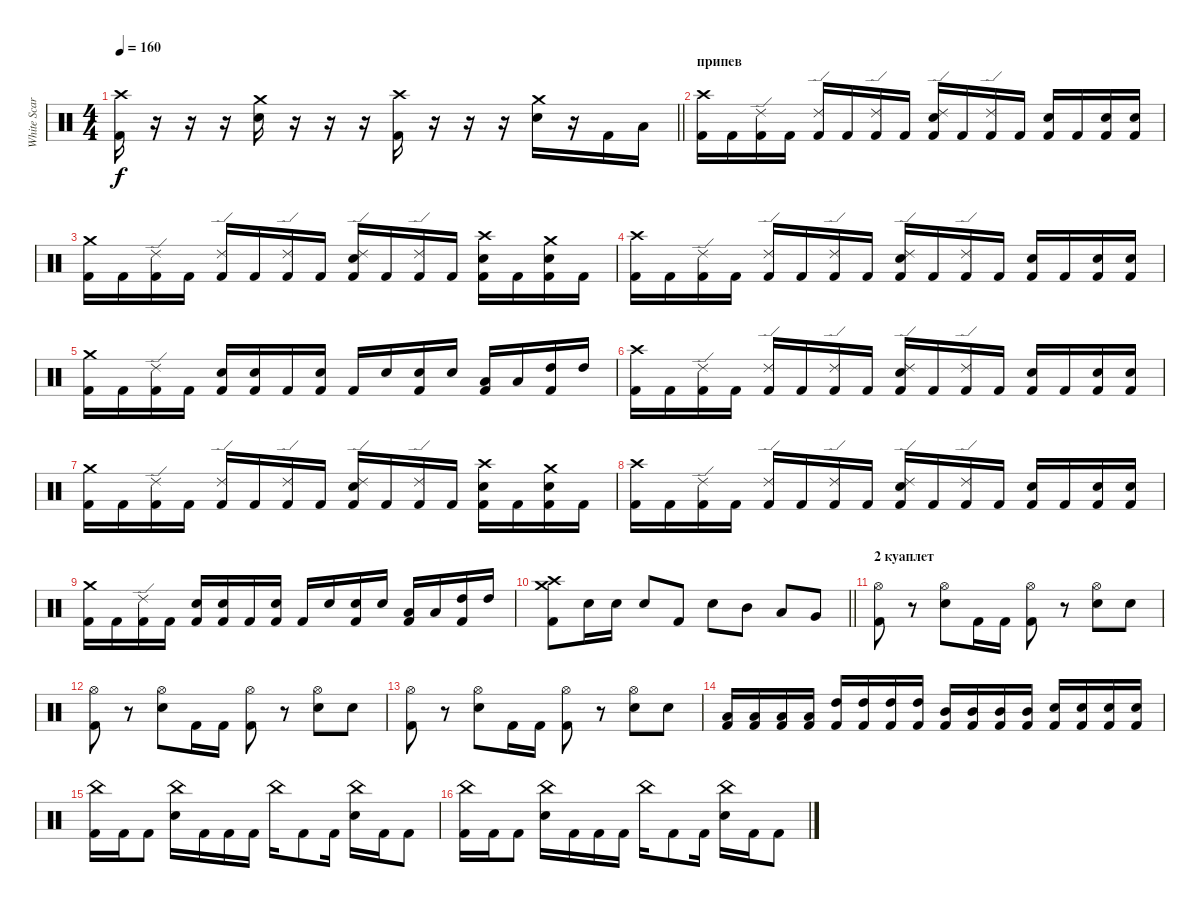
\track ("White Scar" "White Scar") {instrument percussion}
\staff {score}
\articulation defaults
\ts (4 4)
\tempo 160
\clef neutral
\barLineRight lightlight
\ks c
("Crash high (hit)" "Kick (hit) 2").16{dy f} r.16 r.16 r.16 ("Crash medium (hit)" "Snare (hit) 2").16 r.16 r.16 r.16 ("Crash high (hit)" "Kick (hit) 2").16 r.16 r.16 r.16 ("Crash medium (hit)" "Snare (hit) 2").16 r.16 "Kick (hit) 2".16 "Low Tom (hit)".16 |
\section ("" "припев")
("Crash high (hit)" "Kick (hit) 2").16 "Kick (hit) 2".16 ("Ride (edge) 2" "Kick (hit) 2").16 "Kick (hit) 2".16 ("Ride (edge) 2" "Kick (hit) 2").16 "Kick (hit) 2".16 ("Ride (edge) 2" "Kick (hit) 2").16 "Kick (hit) 2".16 ("Snare (hit) 2" "Ride (edge) 2" "Kick (hit) 2").16 "Kick (hit) 2".16 ("Ride (edge) 2" "Kick (hit) 2").16 "Kick (hit) 2".16 ("Snare (hit) 2" "Kick (hit) 2").16 "Kick (hit) 2".16 ("Snare (hit) 2" "Kick (hit) 2").16 ("Snare (hit) 2" "Kick (hit) 2").16 |
("Crash medium (hit)" "Kick (hit) 2").16 "Kick (hit) 2".16 ("Ride (edge) 2" "Kick (hit) 2").16 "Kick (hit) 2".16 ("Ride (edge) 2" "Kick (hit) 2").16 "Kick (hit) 2".16 ("Ride (edge) 2" "Kick (hit) 2").16 "Kick (hit) 2".16 ("Snare (hit) 2" "Ride (edge) 2" "Kick (hit) 2").16 "Kick (hit) 2".16 ("Ride (edge) 2" "Kick (hit) 2").16 "Kick (hit) 2".16 ("Snare (hit) 2" "Crash high (hit)" "Kick (hit) 2").16 "Kick (hit) 2".16 ("Snare (hit) 2" "Crash medium (hit)" "Kick (hit) 2").16 "Kick (hit) 2".16 |
("Crash high (hit)" "Kick (hit) 2").16 "Kick (hit) 2".16 ("Ride (edge) 2" "Kick (hit) 2").16 "Kick (hit) 2".16 ("Ride (edge) 2" "Kick (hit) 2").16 "Kick (hit) 2".16 ("Ride (edge) 2" "Kick (hit) 2").16 "Kick (hit) 2".16 ("Snare (hit) 2" "Ride (edge) 2" "Kick (hit) 2").16 "Kick (hit) 2".16 ("Ride (edge) 2" "Kick (hit) 2").16 "Kick (hit) 2".16 ("Snare (hit) 2" "Kick (hit) 2").16 "Kick (hit) 2".16 ("Snare (hit) 2" "Kick (hit) 2").16 ("Snare (hit) 2" "Kick (hit) 2").16 |
("Crash medium (hit)" "Kick (hit) 2").16 "Kick (hit) 2".16 ("Ride (edge) 2" "Kick (hit) 2").16 "Kick (hit) 2".16 ("Snare (hit) 2" "Kick (hit) 2").16 ("Snare (hit) 2" "Kick (hit) 2").16 "Kick (hit) 2".16 ("Snare (hit) 2" "Kick (hit) 2").16 "Kick (hit) 2".16 "Snare (hit) 2".16 ("Snare (hit) 2" "Kick (hit) 2").16 "Snare (hit) 2".16 ("Low Tom (hit)" "Kick (hit) 2").16 "Low Tom (hit)".16 ("High Tom (hit)" "Kick (hit) 2").16 "High Tom (hit)".16 |
("Crash high (hit)" "Kick (hit) 2").16 "Kick (hit) 2".16 ("Ride (edge) 2" "Kick (hit) 2").16 "Kick (hit) 2".16 ("Ride (edge) 2" "Kick (hit) 2").16 "Kick (hit) 2".16 ("Ride (edge) 2" "Kick (hit) 2").16 "Kick (hit) 2".16 ("Snare (hit) 2" "Ride (edge) 2" "Kick (hit) 2").16 "Kick (hit) 2".16 ("Ride (edge) 2" "Kick (hit) 2").16 "Kick (hit) 2".16 ("Snare (hit) 2" "Kick (hit) 2").16 "Kick (hit) 2".16 ("Snare (hit) 2" "Kick (hit) 2").16 ("Snare (hit) 2" "Kick (hit) 2").16 |
("Crash medium (hit)" "Kick (hit) 2").16 "Kick (hit) 2".16 ("Ride (edge) 2" "Kick (hit) 2").16 "Kick (hit) 2".16 ("Ride (edge) 2" "Kick (hit) 2").16 "Kick (hit) 2".16 ("Ride (edge) 2" "Kick (hit) 2").16 "Kick (hit) 2".16 ("Snare (hit) 2" "Ride (edge) 2" "Kick (hit) 2").16 "Kick (hit) 2".16 ("Ride (edge) 2" "Kick (hit) 2").16 "Kick (hit) 2".16 ("Snare (hit) 2" "Crash high (hit)" "Kick (hit) 2").16 "Kick (hit) 2".16 ("Snare (hit) 2" "Crash medium (hit)" "Kick (hit) 2").16 "Kick (hit) 2".16 |
("Crash high (hit)" "Kick (hit) 2").16 "Kick (hit) 2".16 ("Ride (edge) 2" "Kick (hit) 2").16 "Kick (hit) 2".16 ("Ride (edge) 2" "Kick (hit) 2").16 "Kick (hit) 2".16 ("Ride (edge) 2" "Kick (hit) 2").16 "Kick (hit) 2".16 ("Snare (hit) 2" "Ride (edge) 2" "Kick (hit) 2").16 "Kick (hit) 2".16 ("Ride (edge) 2" "Kick (hit) 2").16 "Kick (hit) 2".16 ("Snare (hit) 2" "Kick (hit) 2").16 "Kick (hit) 2".16 ("Snare (hit) 2" "Kick (hit) 2").16 ("Snare (hit) 2" "Kick (hit) 2").16 |
("Crash medium (hit)" "Kick (hit) 2").16 "Kick (hit) 2".16 ("Ride (edge) 2" "Kick (hit) 2").16 "Kick (hit) 2".16 ("Snare (hit) 2" "Kick (hit) 2").16 ("Snare (hit) 2" "Kick (hit) 2").16 "Kick (hit) 2".16 ("Snare (hit) 2" "Kick (hit) 2").16 "Kick (hit) 2".16 "Snare (hit) 2".16 ("Snare (hit) 2" "Kick (hit) 2").16 "Snare (hit) 2".16 ("Low Tom (hit)" "Kick (hit) 2").16 "Low Tom (hit)".16 ("High Tom (hit)" "Kick (hit) 2").16 "High Tom (hit)".16 |
\barLineRight lightlight
("Crash medium (hit)" "Crash high (hit)" "Kick (hit) 2").8 "Snare (hit) 2".16 "Snare (hit) 2".16 "Snare (hit) 2".8 "Kick (hit) 2".8 "Snare (hit) 2".8 "Mid Tom (hit)".8 "Low Tom (hit)".8 "Very Low Tom (hit)".8 |
\section ("" "2 куаплет")
("Hi-Hat (open)" "Kick (hit) 2").8 r.8 ("Hi-Hat (open)" "Snare (hit) 2").8 "Kick (hit) 2".16 "Kick (hit) 2".16 ("Hi-Hat (open)" "Kick (hit) 2").8 r.8 ("Hi-Hat (open)" "Snare (hit) 2").8 "Snare (hit) 2".8 |
("Hi-Hat (open)" "Kick (hit) 2").8 r.8 ("Hi-Hat (open)" "Snare (hit) 2").8 "Kick (hit) 2".16 "Kick (hit) 2".16 ("Hi-Hat (open)" "Kick (hit) 2").8 r.8 ("Hi-Hat (open)" "Snare (hit) 2").8 "Snare (hit) 2".8 |
("Hi-Hat (open)" "Kick (hit) 2").8 r.8 ("Hi-Hat (open)" "Snare (hit) 2").8 "Kick (hit) 2".16 "Kick (hit) 2".16 ("Hi-Hat (open)" "Kick (hit) 2").8 r.8 ("Hi-Hat (open)" "Snare (hit) 2").8 "Snare (hit) 2".8 |
("Low Tom (hit)" "Kick (hit) 2").16 ("Low Tom (hit)" "Kick (hit) 2").16 ("Low Tom (hit)" "Kick (hit) 2").16 ("Low Tom (hit)" "Kick (hit) 2").16 ("High Tom (hit)" "Kick (hit) 2").16 ("High Tom (hit)" "Kick (hit) 2").16 ("High Tom (hit)" "Kick (hit) 2").16 ("High Tom (hit)" "Kick (hit) 2").16 ("Mid Tom (hit)" "Kick (hit) 2").16 ("Mid Tom (hit)" "Kick (hit) 2").16 ("Mid Tom (hit)" "Kick (hit) 2").16 ("Mid Tom (hit)" "Kick (hit) 2").16 ("Snare (hit) 2" "Kick (hit) 2").16 ("Snare (hit) 2" "Kick (hit) 2").16 ("Snare (hit) 2" "Kick (hit) 2").16 ("Snare (hit) 2" "Kick (hit) 2").16 |
("China (hit)" "Kick (hit) 2").16 "Kick (hit) 2".16 "Kick (hit) 2".8 ("China (hit)" "Snare (hit) 2").16 "Kick (hit) 2".16 "Kick (hit) 2".16 "Kick (hit) 2".16 "China (hit)".16 "Kick (hit) 2".8 "Kick (hit) 2".16 ("China (hit)" "Snare (hit) 2").16 "Kick (hit) 2".16 "Kick (hit) 2".8 |
("China (hit)" "Kick (hit) 2").16 "Kick (hit) 2".16 "Kick (hit) 2".8 ("China (hit)" "Snare (hit) 2").16 "Kick (hit) 2".16 "Kick (hit) 2".16 "Kick (hit) 2".16 "China (hit)".16 "Kick (hit) 2".8 "Kick (hit) 2".16 ("China (hit)" "Snare (hit) 2").16 "Kick (hit) 2".16 "Kick (hit) 2".8
